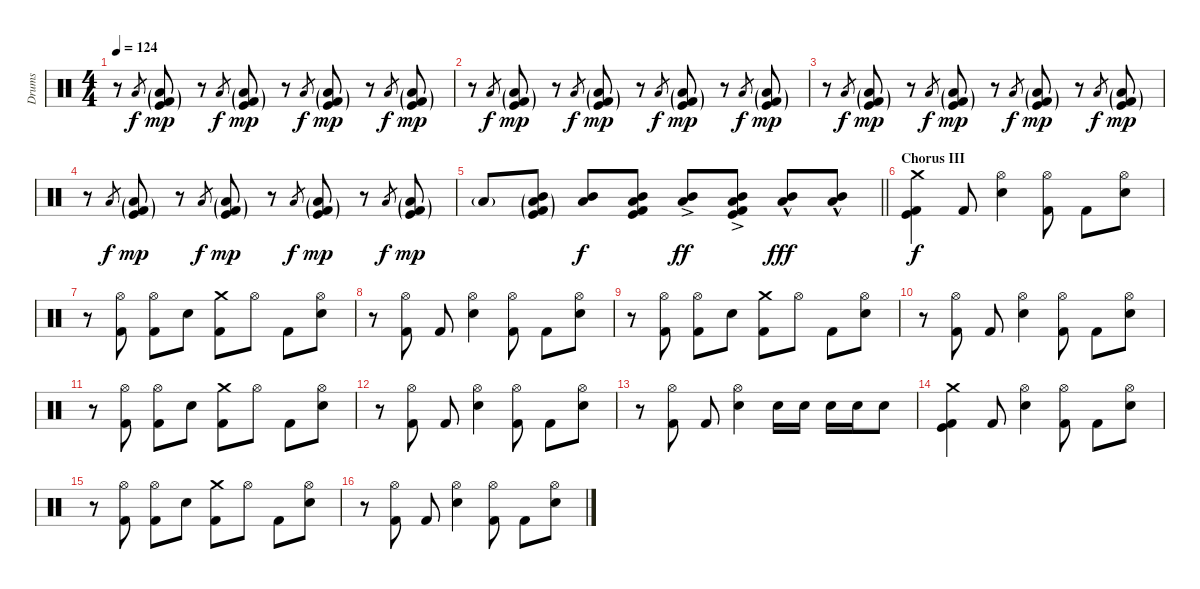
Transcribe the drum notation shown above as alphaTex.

\track ("Drums" "Drums") {instrument percussion}
\staff {score}
\articulation defaults
\ts (4 4)
\tempo 124
\clef neutral
\ks c
r.8{dy mp} "Low Floor Tom (hit)".8{gr dy f} ("Kick (hit)"{g} "Kick (hit) 2"{g} "Low Floor Tom (hit)"{g}).8{dy mp} r.8 "Low Floor Tom (hit)".8{gr dy f} ("Kick (hit)"{g} "Kick (hit) 2"{g} "Low Floor Tom (hit)"{g}).8{dy mp} r.8 "Low Floor Tom (hit)".8{gr dy f} ("Kick (hit)"{g} "Kick (hit) 2"{g} "Low Floor Tom (hit)"{g}).8{dy mp} r.8 "Low Floor Tom (hit)".8{gr dy f} ("Kick (hit)"{g} "Kick (hit) 2"{g} "Low Floor Tom (hit)"{g}).8{dy mp} |
r.8 "Low Floor Tom (hit)".8{gr dy f} ("Kick (hit)"{g} "Kick (hit) 2"{g} "Low Floor Tom (hit)"{g}).8{dy mp} r.8 "Low Floor Tom (hit)".8{gr dy f} ("Kick (hit)"{g} "Kick (hit) 2"{g} "Low Floor Tom (hit)"{g}).8{dy mp} r.8 "Low Floor Tom (hit)".8{gr dy f} ("Kick (hit)"{g} "Kick (hit) 2"{g} "Low Floor Tom (hit)"{g}).8{dy mp} r.8 "Low Floor Tom (hit)".8{gr dy f} ("Kick (hit)"{g} "Kick (hit) 2"{g} "Low Floor Tom (hit)"{g}).8{dy mp} |
r.8 "Low Floor Tom (hit)".8{gr dy f} ("Kick (hit)"{g} "Kick (hit) 2"{g} "Low Floor Tom (hit)"{g}).8{dy mp} r.8 "Low Floor Tom (hit)".8{gr dy f} ("Kick (hit)"{g} "Kick (hit) 2"{g} "Low Floor Tom (hit)"{g}).8{dy mp} r.8 "Low Floor Tom (hit)".8{gr dy f} ("Kick (hit)"{g} "Kick (hit) 2"{g} "Low Floor Tom (hit)"{g}).8{dy mp} r.8 "Low Floor Tom (hit)".8{gr dy f} ("Kick (hit)"{g} "Kick (hit) 2"{g} "Low Floor Tom (hit)"{g}).8{dy mp} |
r.8 "Low Floor Tom (hit)".8{gr dy f} ("Kick (hit)"{g} "Kick (hit) 2"{g} "Low Floor Tom (hit)"{g}).8{dy mp} r.8 "Low Floor Tom (hit)".8{gr dy f} ("Kick (hit)"{g} "Kick (hit) 2"{g} "Low Floor Tom (hit)"{g}).8{dy mp} r.8 "Low Floor Tom (hit)".8{gr dy f} ("Kick (hit)"{g} "Kick (hit) 2"{g} "Low Floor Tom (hit)"{g}).8{dy mp} r.8 "Low Floor Tom (hit)".8{gr dy f} ("Kick (hit)"{g} "Kick (hit) 2"{g} "Low Floor Tom (hit)"{g}).8{dy mp} |
\barLineRight lightlight "Low Floor Tom (hit)"{g}.8{volume 9}
("Mid Tom (hit)"{g} "Kick (hit)"{g} "Kick (hit) 2"{g} "Low Floor Tom (hit)"{g}).8 ("Mid Tom (hit)" "Low Floor Tom (hit)").8{dy f} ("Mid Tom (hit)" "Kick (hit)" "Kick (hit) 2" "Low Floor Tom (hit)").8 ("Mid Tom (hit)"{ac} "Low Floor Tom (hit)"{ac}).8{dy ff} ("Mid Tom (hit)"{ac} "Kick (hit)"{ac} "Kick (hit) 2"{ac} "Low Floor Tom (hit)"{ac}).8 ("Mid Tom (hit)"{hac} "Low Floor Tom (hit)"{hac}).8{dy fff} ("Mid Tom (hit)"{hac} "Low Floor Tom (hit)"{hac}).8 |
\section ("" "Chorus III")
("Crash medium (hit)" "Kick (hit)" "Kick (hit) 2").4{dy f} "Kick (hit) 2".8 ("Electric Snare (hit)" "Hi-Hat (open)").4 ("Hi-Hat (open)" "Kick (hit) 2").8 "Kick (hit) 2".8 ("Electric Snare (hit)" "Hi-Hat (open)").8 |
r.8 ("Hi-Hat (open)" "Kick (hit) 2").8 ("Hi-Hat (open)" "Kick (hit) 2").8 "Electric Snare (hit)".8 ("Crash medium (hit)" "Kick (hit) 2").8 "Hi-Hat (open)".8 "Kick (hit) 2".8 ("Electric Snare (hit)" "Hi-Hat (open)").8 |
r.8 ("Hi-Hat (open)" "Kick (hit) 2").8 "Kick (hit) 2".8 ("Electric Snare (hit)" "Hi-Hat (open)").4 ("Hi-Hat (open)" "Kick (hit) 2").8 "Kick (hit) 2".8 ("Electric Snare (hit)" "Hi-Hat (open)").8 |
r.8 ("Hi-Hat (open)" "Kick (hit) 2").8 ("Hi-Hat (open)" "Kick (hit) 2").8 "Electric Snare (hit)".8 ("Crash medium (hit)" "Kick (hit) 2").8 "Hi-Hat (open)".8 "Kick (hit) 2".8 ("Electric Snare (hit)" "Hi-Hat (open)").8 |
r.8 ("Hi-Hat (open)" "Kick (hit) 2").8 "Kick (hit) 2".8 ("Electric Snare (hit)" "Hi-Hat (open)").4 ("Hi-Hat (open)" "Kick (hit) 2").8 "Kick (hit) 2".8 ("Electric Snare (hit)" "Hi-Hat (open)").8 |
r.8 ("Hi-Hat (open)" "Kick (hit) 2").8 ("Hi-Hat (open)" "Kick (hit) 2").8 "Electric Snare (hit)".8 ("Crash medium (hit)" "Kick (hit) 2").8 "Hi-Hat (open)".8 "Kick (hit) 2".8 ("Electric Snare (hit)" "Hi-Hat (open)").8 |
r.8 ("Hi-Hat (open)" "Kick (hit) 2").8 "Kick (hit) 2".8 ("Electric Snare (hit)" "Hi-Hat (open)").4 ("Hi-Hat (open)" "Kick (hit) 2").8 "Kick (hit) 2".8 ("Electric Snare (hit)" "Hi-Hat (open)").8 |
r.8 ("Kick (hit) 2" "Hi-Hat (open)").8 "Kick (hit) 2".8 ("Electric Snare (hit)" "Hi-Hat (open)").4 "Electric Snare (hit)".16 "Electric Snare (hit)".16 "Electric Snare (hit)".16 "Electric Snare (hit)".16 "Electric Snare (hit)".8 |
("Crash medium (hit)" "Kick (hit)" "Kick (hit) 2").4 "Kick (hit) 2".8 ("Electric Snare (hit)" "Hi-Hat (open)").4 ("Hi-Hat (open)" "Kick (hit) 2").8 "Kick (hit) 2".8 ("Electric Snare (hit)" "Hi-Hat (open)").8 |
r.8 ("Hi-Hat (open)" "Kick (hit) 2").8 ("Hi-Hat (open)" "Kick (hit) 2").8 "Electric Snare (hit)".8 ("Crash medium (hit)" "Kick (hit) 2").8 "Hi-Hat (open)".8 "Kick (hit) 2".8 ("Electric Snare (hit)" "Hi-Hat (open)").8 |
r.8 ("Hi-Hat (open)" "Kick (hit) 2").8 "Kick (hit) 2".8 ("Electric Snare (hit)" "Hi-Hat (open)").4 ("Hi-Hat (open)" "Kick (hit) 2").8 "Kick (hit) 2".8 ("Electric Snare (hit)" "Hi-Hat (open)").8
